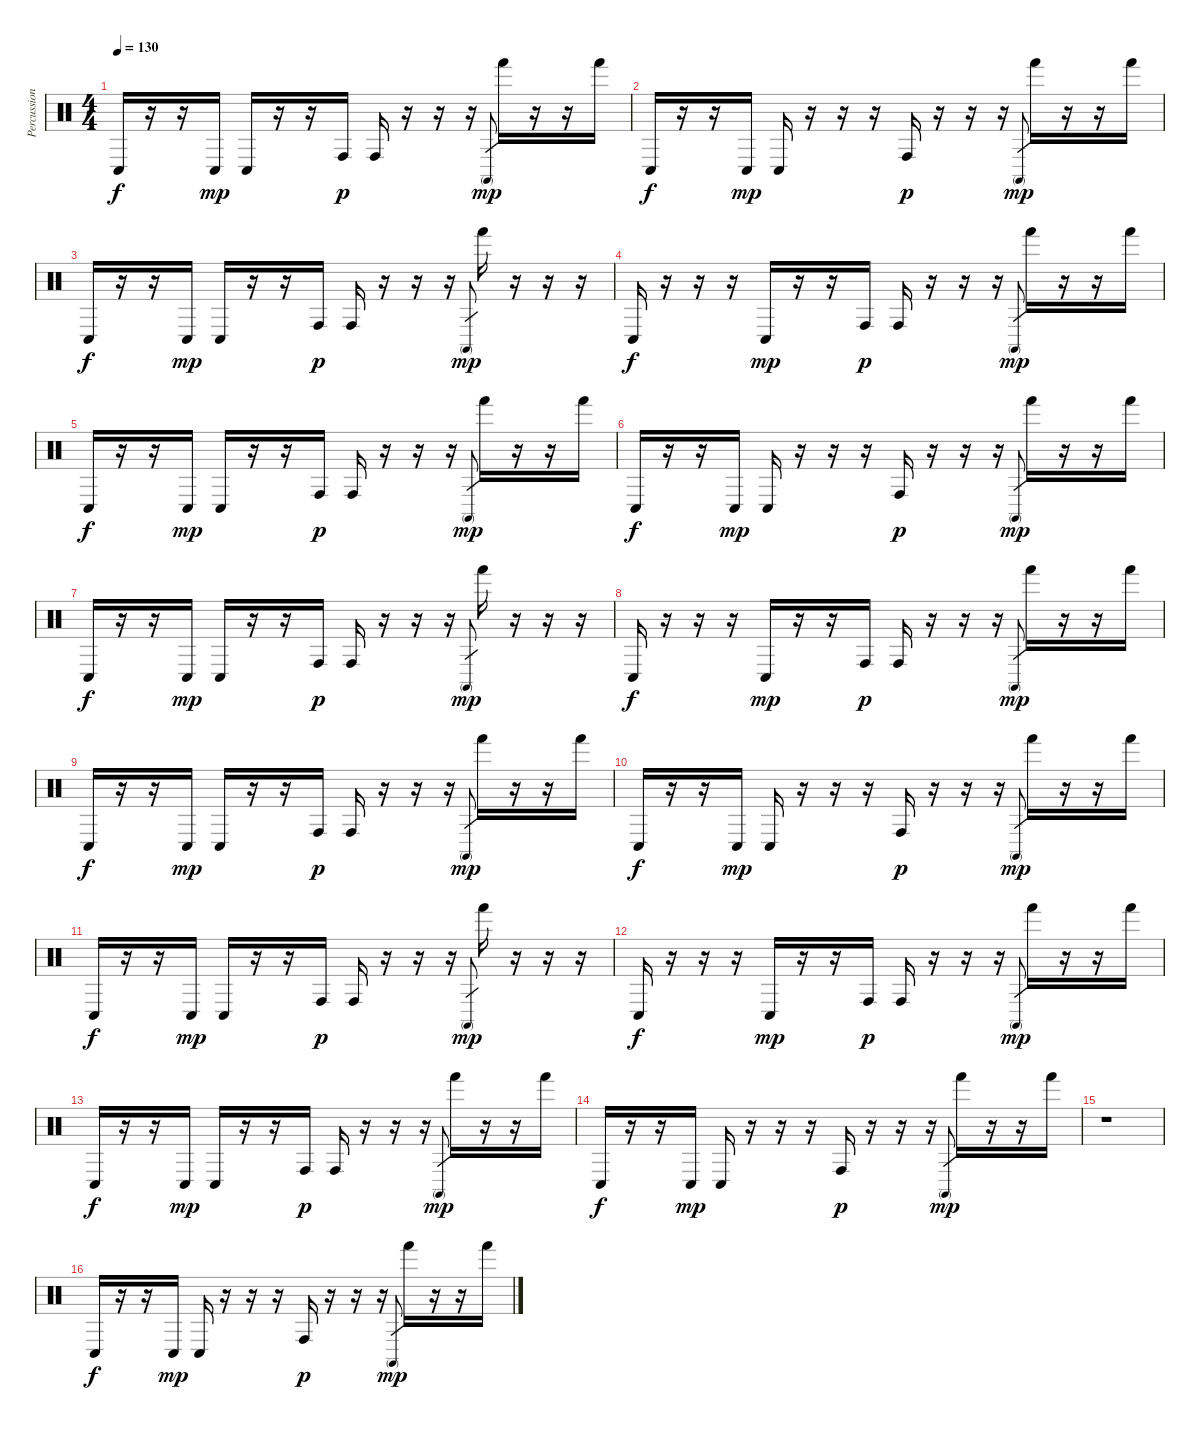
\track ("Percussions" "Percussion") {instrument percussion}
\staff {score}
\articulation defaults
\ts (4 4)
\tempo 130
\clef neutral
\ks c "Conga low (hit)".16{dy f}
r.16 r.16 "Conga low (hit)".16{dy mp} "Conga low (hit)".16 r.16 r.16 "Conga high (hit)".16{dy p} "Conga high (hit)".16 r.16 r.16 r.16 "Conga high (mute)".8{gr dy mp} "Hand (hit)".16 r.16 r.16 "Hand (hit)".16 |
"Conga low (hit)".16{dy f} r.16 r.16 "Conga low (hit)".16{dy mp} "Conga low (hit)".16 r.16 r.16 r.16 "Conga high (hit)".16{dy p} r.16 r.16 r.16 "Conga high (mute)".8{gr dy mp} "Hand (hit)".16 r.16 r.16 "Hand (hit)".16 |
"Conga low (hit)".16{dy f} r.16 r.16 "Conga low (hit)".16{dy mp} "Conga low (hit)".16 r.16 r.16 "Conga high (hit)".16{dy p} "Conga high (hit)".16 r.16 r.16 r.16 "Conga high (mute)".8{gr dy mp} "Hand (hit)".16 r.16 r.16 r.16 |
"Conga low (hit)".16{dy f} r.16 r.16 r.16 "Conga low (hit)".16{dy mp} r.16 r.16 "Conga high (hit)".16{dy p} "Conga high (hit)".16 r.16 r.16 r.16 "Conga high (mute)".8{gr dy mp} "Hand (hit)".16 r.16 r.16 "Hand (hit)".16 |
"Conga low (hit)".16{dy f} r.16 r.16 "Conga low (hit)".16{dy mp} "Conga low (hit)".16 r.16 r.16 "Conga high (hit)".16{dy p} "Conga high (hit)".16 r.16 r.16 r.16 "Conga high (mute)".8{gr dy mp} "Hand (hit)".16 r.16 r.16 "Hand (hit)".16 |
"Conga low (hit)".16{dy f} r.16 r.16 "Conga low (hit)".16{dy mp} "Conga low (hit)".16 r.16 r.16 r.16 "Conga high (hit)".16{dy p} r.16 r.16 r.16 "Conga high (mute)".8{gr dy mp} "Hand (hit)".16 r.16 r.16 "Hand (hit)".16 |
"Conga low (hit)".16{dy f} r.16 r.16 "Conga low (hit)".16{dy mp} "Conga low (hit)".16 r.16 r.16 "Conga high (hit)".16{dy p} "Conga high (hit)".16 r.16 r.16 r.16 "Conga high (mute)".8{gr dy mp} "Hand (hit)".16 r.16 r.16 r.16 |
"Conga low (hit)".16{dy f} r.16 r.16 r.16 "Conga low (hit)".16{dy mp} r.16 r.16 "Conga high (hit)".16{dy p} "Conga high (hit)".16 r.16 r.16 r.16 "Conga high (mute)".8{gr dy mp} "Hand (hit)".16 r.16 r.16 "Hand (hit)".16 |
"Conga low (hit)".16{dy f} r.16 r.16 "Conga low (hit)".16{dy mp} "Conga low (hit)".16 r.16 r.16 "Conga high (hit)".16{dy p} "Conga high (hit)".16 r.16 r.16 r.16 "Conga high (mute)".8{gr dy mp} "Hand (hit)".16 r.16 r.16 "Hand (hit)".16 |
"Conga low (hit)".16{dy f} r.16 r.16 "Conga low (hit)".16{dy mp} "Conga low (hit)".16 r.16 r.16 r.16 "Conga high (hit)".16{dy p} r.16 r.16 r.16 "Conga high (mute)".8{gr dy mp} "Hand (hit)".16 r.16 r.16 "Hand (hit)".16 |
"Conga low (hit)".16{dy f} r.16 r.16 "Conga low (hit)".16{dy mp} "Conga low (hit)".16 r.16 r.16 "Conga high (hit)".16{dy p} "Conga high (hit)".16 r.16 r.16 r.16 "Conga high (mute)".8{gr dy mp} "Hand (hit)".16 r.16 r.16 r.16 |
"Conga low (hit)".16{dy f} r.16 r.16 r.16 "Conga low (hit)".16{dy mp} r.16 r.16 "Conga high (hit)".16{dy p} "Conga high (hit)".16 r.16 r.16 r.16 "Conga high (mute)".8{gr dy mp} "Hand (hit)".16 r.16 r.16 "Hand (hit)".16 |
"Conga low (hit)".16{dy f} r.16 r.16 "Conga low (hit)".16{dy mp} "Conga low (hit)".16 r.16 r.16 "Conga high (hit)".16{dy p} "Conga high (hit)".16 r.16 r.16 r.16 "Conga high (mute)".8{gr dy mp} "Hand (hit)".16 r.16 r.16 "Hand (hit)".16 |
"Conga low (hit)".16{dy f} r.16 r.16 "Conga low (hit)".16{dy mp} "Conga low (hit)".16 r.16 r.16 r.16 "Conga high (hit)".16{dy p} r.16 r.16 r.16 "Conga high (mute)".8{gr dy mp} "Hand (hit)".16 r.16 r.16 "Hand (hit)".16 |
r.1 |
"Conga low (hit)".16{dy f} r.16 r.16 "Conga low (hit)".16{dy mp} "Conga low (hit)".16 r.16 r.16 r.16 "Conga high (hit)".16{dy p} r.16 r.16 r.16 "Conga high (mute)".8{gr dy mp} "Hand (hit)".16 r.16 r.16 "Hand (hit)".16
